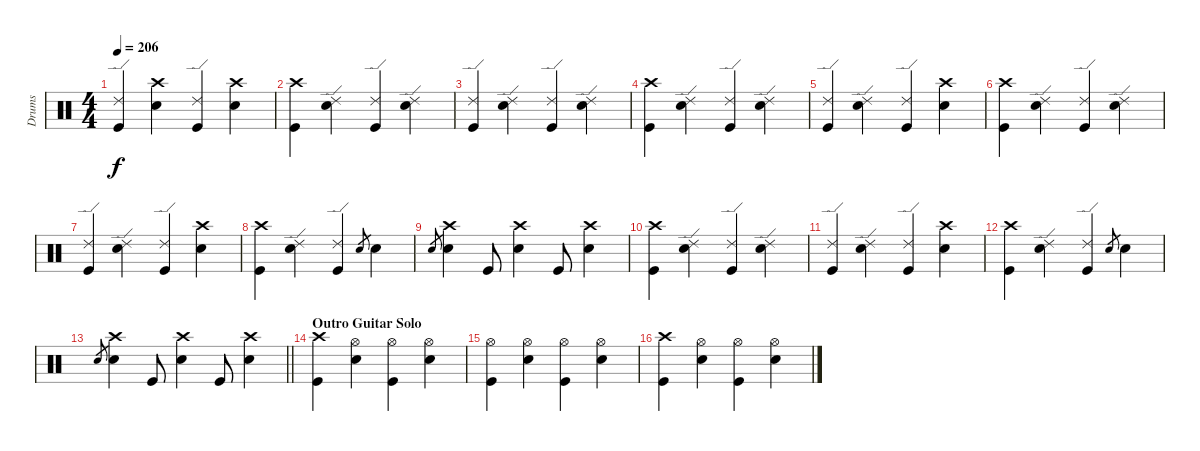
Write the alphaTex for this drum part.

\track ("Drums" "Drums") {instrument percussion}
\staff {score}
\articulation defaults
\ts (4 4)
\tempo 206
\clef neutral
\ks c
("Ride (edge) 2" "Kick (hit)").4{dy f} ("Crash high (hit)" "Electric Snare (hit)").4 ("Ride (edge) 2" "Kick (hit)").4 ("Crash high (hit)" "Electric Snare (hit)").4 |
("Crash high (hit)" "Kick (hit)").4 ("Ride (edge) 2" "Electric Snare (hit)").4 ("Ride (edge) 2" "Kick (hit)").4 ("Ride (edge) 2" "Electric Snare (hit)").4 |
("Ride (edge) 2" "Kick (hit)").4 ("Ride (edge) 2" "Electric Snare (hit)").4 ("Ride (edge) 2" "Kick (hit)").4 ("Ride (edge) 2" "Electric Snare (hit)").4 |
("Crash high (hit)" "Kick (hit)").4 ("Ride (edge) 2" "Electric Snare (hit)").4 ("Ride (edge) 2" "Kick (hit)").4 ("Ride (edge) 2" "Electric Snare (hit)").4 |
("Ride (edge) 2" "Kick (hit)").4 ("Ride (edge) 2" "Electric Snare (hit)").4 ("Ride (edge) 2" "Kick (hit)").4 ("Crash high (hit)" "Electric Snare (hit)").4 |
("Crash high (hit)" "Kick (hit)").4 ("Ride (edge) 2" "Electric Snare (hit)").4 ("Ride (edge) 2" "Kick (hit)").4 ("Ride (edge) 2" "Electric Snare (hit)").4 |
("Ride (edge) 2" "Kick (hit)").4 ("Ride (edge) 2" "Electric Snare (hit)").4 ("Ride (edge) 2" "Kick (hit)").4 ("Crash high (hit)" "Electric Snare (hit)").4 |
("Crash high (hit)" "Kick (hit)").4 ("Ride (edge) 2" "Electric Snare (hit)").4 ("Ride (edge) 2" "Kick (hit)").4 "Electric Snare (hit)".8{gr} "Electric Snare (hit)".4 |
"Electric Snare (hit)".8{gr} ("Crash high (hit)" "Electric Snare (hit)").4 "Kick (hit)".8 ("Crash high (hit)" "Electric Snare (hit)").4 "Kick (hit)".8 ("Crash high (hit)" "Electric Snare (hit)").4 |
("Crash high (hit)" "Kick (hit)").4 ("Ride (edge) 2" "Electric Snare (hit)").4 ("Ride (edge) 2" "Kick (hit)").4 ("Ride (edge) 2" "Electric Snare (hit)").4 |
("Ride (edge) 2" "Kick (hit)").4 ("Ride (edge) 2" "Electric Snare (hit)").4 ("Ride (edge) 2" "Kick (hit)").4 ("Crash high (hit)" "Electric Snare (hit)").4 |
("Crash high (hit)" "Kick (hit)").4 ("Ride (edge) 2" "Electric Snare (hit)").4 ("Ride (edge) 2" "Kick (hit)").4 "Electric Snare (hit)".8{gr} "Electric Snare (hit)".4 |
\barLineRight lightlight "Electric Snare (hit)".8{gr}
("Crash high (hit)" "Electric Snare (hit)").4 "Kick (hit)".8 ("Crash high (hit)" "Electric Snare (hit)").4 "Kick (hit)".8 ("Crash high (hit)" "Electric Snare (hit)").4 |
\section ("" "Outro Guitar Solo")
("Crash high (hit)" "Kick (hit)").4 ("Hi-Hat (open)" "Electric Snare (hit)").4 ("Hi-Hat (open)" "Kick (hit)").4 ("Hi-Hat (open)" "Electric Snare (hit)").4 |
("Hi-Hat (open)" "Kick (hit)").4 ("Hi-Hat (open)" "Electric Snare (hit)").4 ("Hi-Hat (open)" "Kick (hit)").4 ("Hi-Hat (open)" "Electric Snare (hit)").4 |
("Crash high (hit)" "Kick (hit)").4 ("Hi-Hat (open)" "Electric Snare (hit)").4 ("Hi-Hat (open)" "Kick (hit)").4 ("Hi-Hat (open)" "Electric Snare (hit)").4
